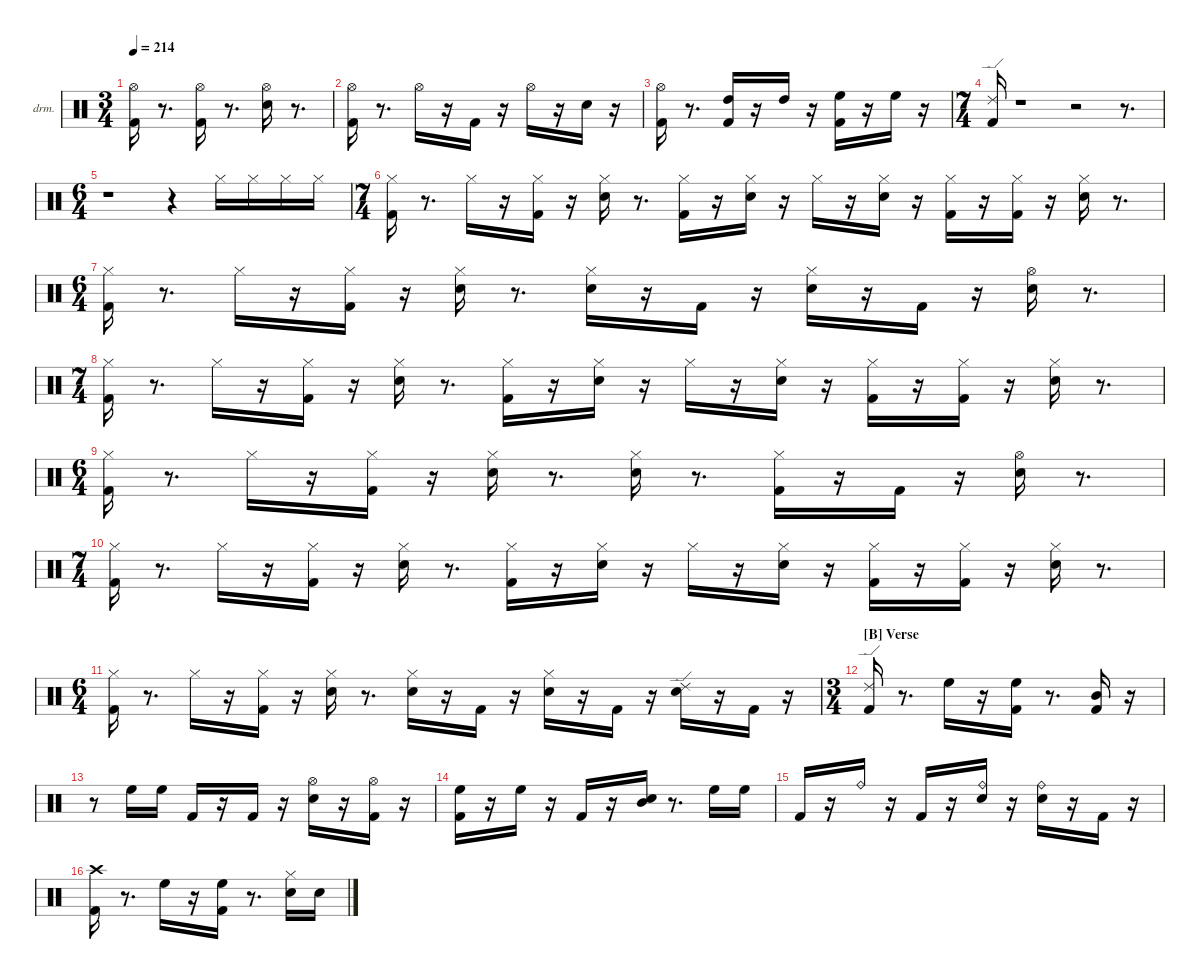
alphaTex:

\hideDynamics
\bracketExtendMode nobrackets
\firstSystemTrackNameOrientation horizontal
\otherSystemsTrackNameOrientation horizontal
\track ("EZdrummer 3" "drm.") {instrument percussion}
\staff {score}
\articulation defaults
\ts (3 4)
\tempo 214
\clef neutral
\ks aminor
("Kick (hit) 2" "Hi-Hat (open)"{acc #}).16{dy fff beam Down} r.8{d beam Down} ("Kick (hit) 2" "Hi-Hat (open)"{acc #}).16{dy f beam Down} r.8{d beam Down} ("Snare (hit) 2" "Hi-Hat (open)"{acc #}).16{beam Down} r.8{d beam Down} |
("Kick (hit) 2" "Hi-Hat (open)"{acc #}).16{dy fff beam Down} r.8{d beam Down} "Hi-Hat (open)"{acc #}.16{dy mp beam Down} r.16{beam Down} "Kick (hit) 2".16{dy f beam Up} r.16{beam Up} "Hi-Hat (open)"{acc #}.16{beam Down} r.16{beam Down} "Snare (hit) 2".16{dy ff beam Down} r.16{beam Down} |
("Kick (hit) 2" "Hi-Hat (open)"{acc #}).16{dy fff beam Down} r.8{d beam Down} ("Kick (hit) 2" "High Tom (hit)").16{dy mf beam Up} r.16{beam Up} "High Tom (hit)".16{dy mp beam Down} r.16{beam Down} ("Kick (hit) 2" "High Floor Tom (hit)").16{dy ff beam Down} r.16{beam Down} "High Floor Tom (hit)".16{dy mp beam Down} r.16{beam Down} |
\ts (7 4)
("Kick (hit) 2" "Ride (edge) 2").16{dy fff beam Up} r.1{beam Down} r.2{beam Down} r.8{d beam Down} |
\ts (6 4)
r.1{beam Down} r.4{beam Down} "Hi-Hat (closed)"{acc #}.16{dy ff beam Down} "Hi-Hat (closed)"{acc #}.16{dy mf beam Down} "Hi-Hat (closed)"{acc #}.16{dy ff beam Down} "Hi-Hat (closed)"{acc #}.16{dy mp beam Down} |
\ts (7 4)
("Kick (hit) 2" "Hi-Hat (closed)"{acc #}).16{dy ff beam Down} r.8{d beam Down} "Hi-Hat (closed)"{acc #}.16{dy mf beam Down} r.16{beam Down} ("Kick (hit) 2" "Hi-Hat (closed)"{acc #}).16{dy f beam Down} r.16{beam Down} ("Snare (hit) 2" "Hi-Hat (closed)"{acc #}).16{beam Down} r.8{d beam Down} ("Kick (hit) 2" "Hi-Hat (closed)"{acc #}).16{beam Down} r.16{beam Down} ("Snare (hit) 2" "Hi-Hat (closed)"{acc #}).16{beam Down} r.16{beam Down} "Hi-Hat (closed)"{acc #}.16{dy p beam Down} r.16{beam Down} ("Snare (hit) 2" "Hi-Hat (closed)"{acc #}).16{dy f beam Down} r.16{beam Down} ("Kick (hit) 2" "Hi-Hat (closed)"{acc #}).16{beam Down} r.16{beam Down} ("Kick (hit) 2" "Hi-Hat (closed)"{acc #}).16{beam Down} r.16{beam Down} ("Snare (hit) 2" "Hi-Hat (closed)"{acc #}).16{beam Down} r.8{d beam Down} |
\ts (6 4)
("Kick (hit) 2" "Hi-Hat (closed)"{acc #}).16{beam Down} r.8{d beam Down} "Hi-Hat (closed)"{acc #}.16{dy mf beam Down} r.16{beam Down} ("Kick (hit) 2" "Hi-Hat (closed)"{acc #}).16{dy f beam Down} r.16{beam Down} ("Snare (hit) 2" "Hi-Hat (closed)"{acc #}).16{beam Down} r.8{d beam Down} ("Snare (hit) 2" "Hi-Hat (closed)"{acc #}).16{dy fff beam Down} r.16{beam Down} "Kick (hit) 2".16{dy mf beam Up} r.16{beam Up} ("Snare (hit) 2" "Hi-Hat (closed)"{acc #}).16{beam Down} r.16{beam Down} "Kick (hit) 2".16{beam Up} r.16{beam Up} ("Snare (hit) 2" "Hi-Hat (open)"{acc #}).16{dy ff beam Down} r.8{d beam Down} |
\ts (7 4)
("Kick (hit) 2" "Hi-Hat (closed)"{acc #}).16{dy f beam Down} r.8{d beam Down} "Hi-Hat (closed)"{acc #}.16{dy mf beam Down} r.16{beam Down} ("Kick (hit) 2" "Hi-Hat (closed)"{acc #}).16{dy pp beam Down} r.16{beam Down} ("Snare (hit) 2" "Hi-Hat (closed)"{acc #}).16{dy ff beam Down} r.8{d beam Down} ("Kick (hit) 2" "Hi-Hat (closed)"{acc #}).16{dy f beam Down} r.16{beam Down} ("Snare (hit) 2" "Hi-Hat (closed)"{acc #}).16{beam Down} r.16{beam Down} "Hi-Hat (closed)"{acc #}.16{dy p beam Down} r.16{beam Down} ("Snare (hit) 2" "Hi-Hat (closed)"{acc #}).16{dy f beam Down} r.16{beam Down} ("Kick (hit) 2" "Hi-Hat (closed)"{acc #}).16{beam Down} r.16{beam Down} ("Kick (hit) 2" "Hi-Hat (closed)"{acc #}).16{beam Down} r.16{beam Down} ("Snare (hit) 2" "Hi-Hat (closed)"{acc #}).16{beam Down} r.8{d beam Down} |
\ts (6 4)
("Kick (hit) 2" "Hi-Hat (closed)"{acc #}).16{beam Down} r.8{d beam Down} "Hi-Hat (closed)"{acc #}.16{dy mf beam Down} r.16{beam Down} ("Kick (hit) 2" "Hi-Hat (closed)"{acc #}).16{dy pp beam Down} r.16{beam Down} ("Snare (hit) 2" "Hi-Hat (closed)"{acc #}).16{dy f beam Down} r.8{d beam Down} ("Snare (hit) 2" "Hi-Hat (closed)"{acc #}).16{dy fff beam Down} r.8{d beam Down} ("Kick (hit) 2" "Hi-Hat (closed)"{acc #}).16{dy mf beam Down} r.16{beam Down} "Kick (hit) 2".16{dy ff beam Up} r.16{beam Up} ("Snare (hit) 2" "Hi-Hat (open)"{acc #}).16{beam Down} r.8{d beam Down} |
\ts (7 4)
("Kick (hit) 2" "Hi-Hat (closed)"{acc #}).16{dy f beam Down} r.8{d beam Down} "Hi-Hat (closed)"{acc #}.16{dy mf beam Down} r.16{beam Down} ("Kick (hit) 2" "Hi-Hat (closed)"{acc #}).16{dy f beam Down} r.16{beam Down} ("Snare (hit) 2" "Hi-Hat (closed)"{acc #}).16{beam Down} r.8{d beam Down} ("Kick (hit) 2" "Hi-Hat (closed)"{acc #}).16{beam Down} r.16{beam Down} ("Snare (hit) 2" "Hi-Hat (closed)"{acc #}).16{beam Down} r.16{beam Down} "Hi-Hat (closed)"{acc #}.16{dy p beam Down} r.16{beam Down} ("Snare (hit) 2" "Hi-Hat (closed)"{acc #}).16{dy f beam Down} r.16{beam Down} ("Kick (hit) 2" "Hi-Hat (closed)"{acc #}).16{beam Down} r.16{beam Down} ("Kick (hit) 2" "Hi-Hat (closed)"{acc #}).16{beam Down} r.16{beam Down} ("Snare (hit) 2" "Hi-Hat (closed)"{acc #}).16{beam Down} r.8{d beam Down} |
\ts (6 4)
("Kick (hit) 2" "Hi-Hat (closed)"{acc #}).16{beam Down} r.8{d beam Down} "Hi-Hat (closed)"{acc #}.16{dy mf beam Down} r.16{beam Down} ("Kick (hit) 2" "Hi-Hat (closed)"{acc #}).16{dy pp beam Down} r.16{beam Down} ("Snare (hit) 2" "Hi-Hat (closed)"{acc #}).16{dy f beam Down} r.8{d beam Down} ("Snare (hit) 2" "Hi-Hat (closed)"{acc #}).16{dy fff beam Down} r.16{beam Down} "Kick (hit) 2".16{dy mf beam Up} r.16{beam Up} ("Snare (hit) 2" "Hi-Hat (closed)"{acc #}).16{beam Down} r.16{beam Down} "Kick (hit) 2".16{beam Up} r.16{beam Up} ("Snare (hit) 2" "Ride (edge) 2").16{dy ff beam Down} r.16{beam Down} "Kick (hit) 2".16{dy mf beam Up} r.16{beam Up} |
\ts (3 4)
\section ("B" "Verse")
("Kick (hit) 2" "Ride (edge) 2").16{dy fff beam Up} r.8{d beam Up} "High Floor Tom (hit)".16{dy mf beam Down} r.16{beam Down} ("Kick (hit) 2" "High Floor Tom (hit)").16{dy fff beam Down} r.8{d beam Down} ("Kick (hit) 2" "Mid Tom (hit)").16{dy ff beam Up} r.16{beam Up} |
r.8{beam Down} "High Floor Tom (hit)".16{dy f beam Down} "High Floor Tom (hit)".16{dy mp beam Down} "Kick (hit) 2".16{dy mf beam Up} r.16{beam Up} "Kick (hit) 2".16{dy fff beam Up} r.16{beam Up} ("Snare (hit) 2" "Hi-Hat (open)"{acc #}).16{dy ff beam Down} r.16{beam Down} ("Kick (hit) 2" "Hi-Hat (open)"{acc #}).16{dy mp beam Down} r.16{beam Down} |
("Kick (hit) 2" "High Floor Tom (hit)").16{dy fff beam Down} r.16{beam Down} "High Floor Tom (hit)".16{dy mf beam Down} r.16{beam Down} "Kick (hit) 2".16{dy mp beam Up} r.16{beam Up} ("Snare (hit) 2" "Mid Tom (hit)").16{dy fff beam Down} r.8{d beam Down} "High Floor Tom (hit)".16{dy ff beam Down} "High Floor Tom (hit)".16{dy mf beam Down} |
"Kick (hit) 2".16{beam Up} r.16{beam Up} "Ride (bell)".16{dy fff beam Down} r.16{beam Down} "Kick (hit) 2".16{dy ff beam Up} r.16{beam Up} ("Snare (hit) 2" "Ride (bell)").16{dy f beam Down} r.16{beam Down} ("Snare (hit) 2" "Ride (bell)").16{dy fff beam Down} r.16{beam Down} "Kick (hit) 2".16{dy mf beam Up} r.16{beam Up} |
("Kick (hit) 2" "Crash high (hit)"{acc #}).16{dy fff beam Down} r.8{d beam Down} "High Floor Tom (hit)".16{beam Down} r.16{beam Down} ("Kick (hit) 2" "High Floor Tom (hit)").16{dy f beam Down} r.8{d beam Down} ("Snare (hit) 2" "Hi-Hat (closed)"{acc #}).16{dy p beam Down} "Snare (hit) 2".16{beam Down}
